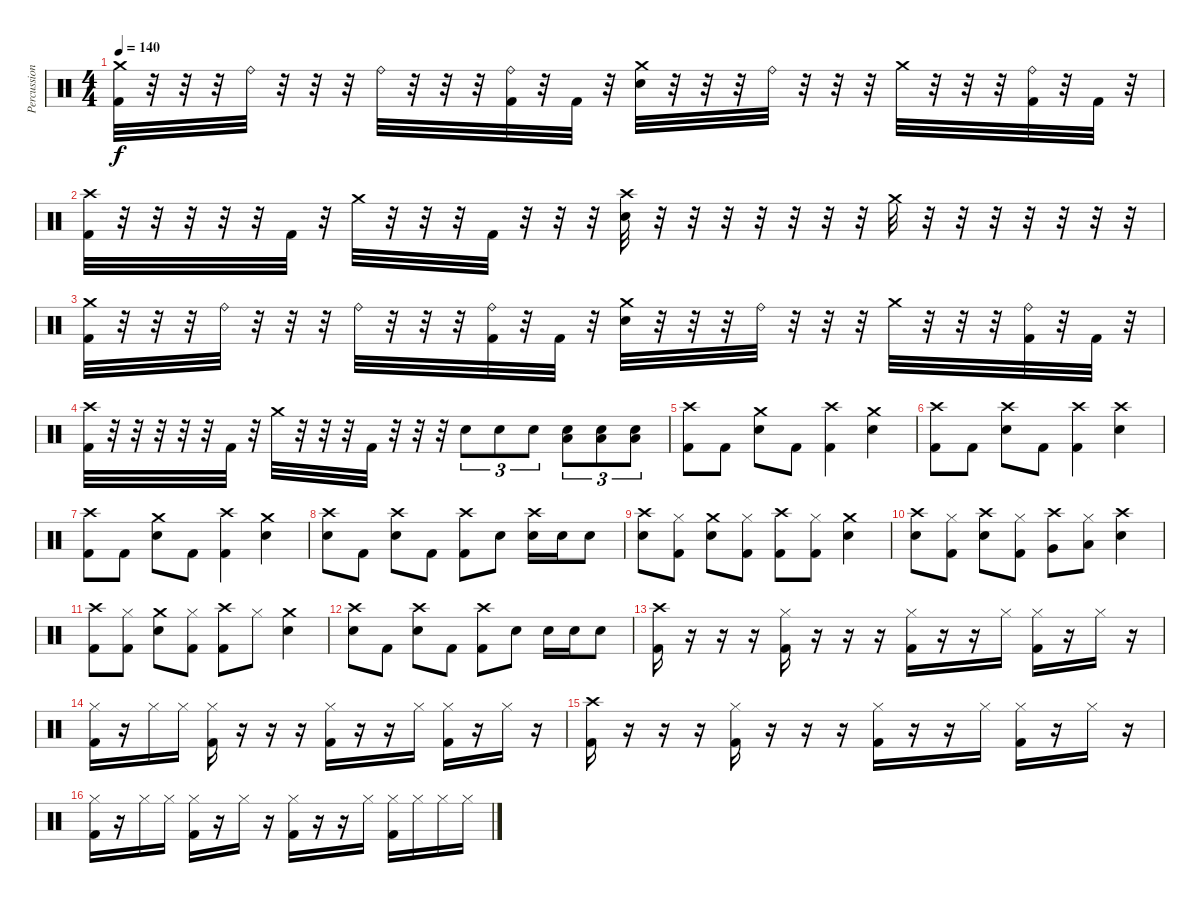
\track ("Percussion" "Percussion") {instrument percussion}
\staff {score}
\articulation defaults
\ts (4 4)
\tempo 140
\clef neutral
\ks c
("Crash medium (hit)" "Kick (hit) 2").32{dy f} r.32 r.32 r.32 "Ride (bell)".32 r.32 r.32 r.32 "Ride (bell)".32 r.32 r.32 r.32 ("Ride (bell)" "Kick (hit) 2").32 r.32 "Kick (hit) 2".32 r.32 ("Crash medium (hit)" "Electric Snare (hit)").32 r.32 r.32 r.32 "Ride (bell)".32 r.32 r.32 r.32 "Crash medium (hit)".32 r.32 r.32 r.32 ("Ride (bell)" "Kick (hit) 2").32 r.32 "Kick (hit) 2".32 r.32 |
("Crash high (hit)" "Kick (hit) 2").32 r.32 r.32 r.32 r.32 r.32 "Kick (hit) 2".32 r.32 "Crash medium (hit)".32 r.32 r.32 r.32 "Kick (hit) 2".32 r.32 r.32 r.32 ("Crash high (hit)" "Electric Snare (hit)").32 r.32 r.32 r.32 r.32 r.32 r.32 r.32 "Crash medium (hit)".32 r.32 r.32 r.32 r.32 r.32 r.32 r.32 |
("Crash medium (hit)" "Kick (hit) 2").32 r.32 r.32 r.32 "Ride (bell)".32 r.32 r.32 r.32 "Ride (bell)".32 r.32 r.32 r.32 ("Ride (bell)" "Kick (hit) 2").32 r.32 "Kick (hit) 2".32 r.32 ("Crash medium (hit)" "Electric Snare (hit)").32 r.32 r.32 r.32 "Ride (bell)".32 r.32 r.32 r.32 "Crash medium (hit)".32 r.32 r.32 r.32 ("Ride (bell)" "Kick (hit) 2").32 r.32 "Kick (hit) 2".32 r.32 |
("Crash high (hit)" "Kick (hit) 2").32 r.32 r.32 r.32 r.32 r.32 "Kick (hit) 2".32 r.32 "Crash medium (hit)".32 r.32 r.32 r.32 "Kick (hit) 2".32 r.32 r.32 r.32 "Electric Snare (hit)".8{tu (3 2)} "Electric Snare (hit)".8{tu (3 2)} "Electric Snare (hit)".8{tu (3 2)} ("Electric Snare (hit)" "Low Floor Tom (hit)").8{tu (3 2)} ("Electric Snare (hit)" "Low Floor Tom (hit)").8{tu (3 2)} ("Electric Snare (hit)" "Low Floor Tom (hit)").8{tu (3 2)} |
("Crash high (hit)" "Kick (hit) 2").8 "Kick (hit) 2".8 ("Crash medium (hit)" "Electric Snare (hit)").8 "Kick (hit) 2".8 ("Crash high (hit)" "Kick (hit) 2").4 ("Crash medium (hit)" "Electric Snare (hit)").4 |
("Crash high (hit)" "Kick (hit) 2").8 "Kick (hit) 2".8 ("Crash high (hit)" "Electric Snare (hit)").8 "Kick (hit) 2".8 ("Crash high (hit)" "Kick (hit) 2").4 ("Crash high (hit)" "Electric Snare (hit)").4 |
("Crash high (hit)" "Kick (hit) 2").8 "Kick (hit) 2".8 ("Crash medium (hit)" "Electric Snare (hit)").8 "Kick (hit) 2".8 ("Crash high (hit)" "Kick (hit) 2").4 ("Crash medium (hit)" "Electric Snare (hit)").4 |
("Crash high (hit)" "Electric Snare (hit)").8 "Kick (hit) 2".8 ("Crash high (hit)" "Electric Snare (hit)").8 "Kick (hit) 2".8 ("Crash high (hit)" "Kick (hit) 2").8 "Electric Snare (hit)".8 ("Crash high (hit)" "Electric Snare (hit)").16 "Electric Snare (hit)".16 "Electric Snare (hit)".8 |
("Crash high (hit)" "Electric Snare (hit)").8 ("Hi-Hat (closed)" "Kick (hit) 2").8 ("Crash medium (hit)" "Electric Snare (hit)").8 ("Hi-Hat (closed)" "Kick (hit) 2").8 ("Crash high (hit)" "Kick (hit) 2").8 ("Hi-Hat (closed)" "Kick (hit) 2").8 ("Crash medium (hit)" "Electric Snare (hit)").4 |
("Crash high (hit)" "Electric Snare (hit)").8 ("Hi-Hat (closed)" "Kick (hit) 2").8 ("Crash high (hit)" "Electric Snare (hit)").8 ("Hi-Hat (closed)" "Kick (hit) 2").8 ("Crash high (hit)" "Very Low Tom (hit)").8 ("Hi-Hat (closed)" "Low Tom (hit)").8 ("Crash high (hit)" "Electric Snare (hit)").4 |
("Crash high (hit)" "Kick (hit) 2").8 ("Hi-Hat (closed)" "Kick (hit) 2").8 ("Crash medium (hit)" "Electric Snare (hit)").8 ("Hi-Hat (closed)" "Kick (hit) 2").8 ("Crash high (hit)" "Kick (hit) 2").8 "Hi-Hat (closed)".8 ("Crash medium (hit)" "Electric Snare (hit)").4 |
("Crash high (hit)" "Electric Snare (hit)").8 "Kick (hit) 2".8 ("Crash high (hit)" "Electric Snare (hit)").8 "Kick (hit) 2".8 ("Crash high (hit)" "Kick (hit) 2").8 "Electric Snare (hit)".8 "Electric Snare (hit)".16 "Electric Snare (hit)".16 "Electric Snare (hit)".8 |
("Crash high (hit)" "Kick (hit) 2").16 r.16 r.16 r.16 ("Hi-Hat (closed)" "Kick (hit) 2").16 r.16 r.16 r.16 ("Hi-Hat (closed)" "Kick (hit) 2").16 r.16 r.16 "Hi-Hat (closed)".16 ("Hi-Hat (closed)" "Kick (hit) 2").16 r.16 "Hi-Hat (closed)".16 r.16 |
("Hi-Hat (closed)" "Kick (hit) 2").16 r.16 "Hi-Hat (closed)".16 "Hi-Hat (closed)".16 ("Hi-Hat (closed)" "Kick (hit) 2").16 r.16 r.16 r.16 ("Hi-Hat (closed)" "Kick (hit) 2").16 r.16 r.16 "Hi-Hat (closed)".16 ("Hi-Hat (closed)" "Kick (hit) 2").16 r.16 "Hi-Hat (closed)".16 r.16 |
("Crash high (hit)" "Kick (hit) 2").16 r.16 r.16 r.16 ("Hi-Hat (closed)" "Kick (hit) 2").16 r.16 r.16 r.16 ("Hi-Hat (closed)" "Kick (hit) 2").16 r.16 r.16 "Hi-Hat (closed)".16 ("Hi-Hat (closed)" "Kick (hit) 2").16 r.16 "Hi-Hat (closed)".16 r.16 |
("Hi-Hat (closed)" "Kick (hit) 2").16 r.16 "Hi-Hat (closed)".16 "Hi-Hat (closed)".16 ("Hi-Hat (closed)" "Kick (hit) 2").16 r.16 "Hi-Hat (closed)".16 r.16 ("Hi-Hat (closed)" "Kick (hit) 2").16 r.16 r.16 "Hi-Hat (closed)".16 ("Hi-Hat (closed)" "Kick (hit) 2").16 "Hi-Hat (closed)".16 "Hi-Hat (closed)".16 "Hi-Hat (closed)".16
